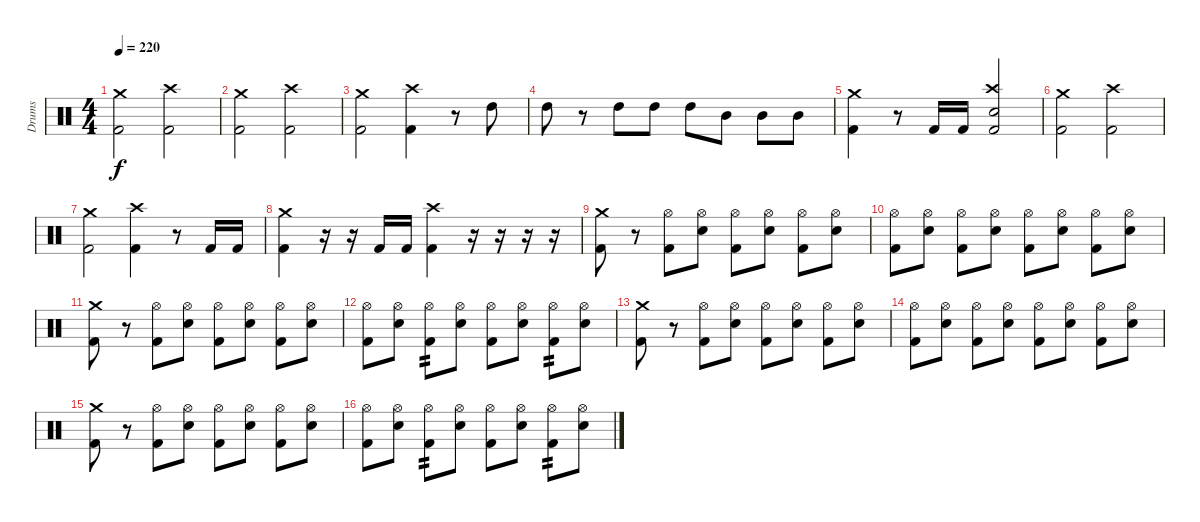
\track ("Drums" "Drums") {instrument percussion}
\staff {score}
\articulation defaults
\ts (4 4)
\tempo 220
\clef neutral
\ks c
("Crash medium (hit)" "Kick (hit) 2").2{dy f} ("Crash high (hit)" "Kick (hit) 2").2 |
("Crash medium (hit)" "Kick (hit) 2").2 ("Crash high (hit)" "Kick (hit) 2").2 |
("Crash medium (hit)" "Kick (hit) 2").2 ("Crash high (hit)" "Kick (hit) 2").4 r.8 "High Tom (hit)".8 |
"High Tom (hit)".8 r.8 "High Tom (hit)".8 "High Tom (hit)".8 "High Tom (hit)".8 "Mid Tom (hit)".8 "Mid Tom (hit)".8 "Mid Tom (hit)".8 |
("Crash medium (hit)" "Kick (hit) 2").4 r.8 "Kick (hit) 2".16 "Kick (hit) 2".16 ("Snare (hit) 2" "Crash high (hit)" "Kick (hit) 2").2 |
("Crash medium (hit)" "Kick (hit) 2").2 ("Crash high (hit)" "Kick (hit) 2").2 |
("Crash medium (hit)" "Kick (hit) 2").2 ("Crash high (hit)" "Kick (hit) 2").4 r.8 "Kick (hit) 2".16 "Kick (hit) 2".16 |
("Crash medium (hit)" "Kick (hit) 2").4 r.16 r.16 "Kick (hit) 2".16 "Kick (hit) 2".16 ("Crash high (hit)" "Kick (hit) 2").4 r.16 r.16 r.16 r.16 |
("Crash medium (hit)" "Kick (hit) 2").8 r.8 ("Hi-Hat (open)" "Kick (hit) 2").8 ("Hi-Hat (open)" "Snare (hit) 2").8 ("Hi-Hat (open)" "Kick (hit) 2").8 ("Hi-Hat (open)" "Snare (hit) 2").8 ("Hi-Hat (open)" "Kick (hit) 2").8 ("Hi-Hat (open)" "Snare (hit) 2").8 |
("Hi-Hat (open)" "Kick (hit) 2").8 ("Hi-Hat (open)" "Snare (hit) 2").8 ("Hi-Hat (open)" "Kick (hit) 2").8 ("Hi-Hat (open)" "Snare (hit) 2").8 ("Hi-Hat (open)" "Kick (hit) 2").8 ("Hi-Hat (open)" "Snare (hit) 2").8 ("Hi-Hat (open)" "Kick (hit) 2").8 ("Hi-Hat (open)" "Snare (hit) 2").8 |
("Crash medium (hit)" "Kick (hit) 2").8 r.8 ("Hi-Hat (open)" "Kick (hit) 2").8 ("Hi-Hat (open)" "Snare (hit) 2").8 ("Hi-Hat (open)" "Kick (hit) 2").8 ("Hi-Hat (open)" "Snare (hit) 2").8 ("Hi-Hat (open)" "Kick (hit) 2").8 ("Hi-Hat (open)" "Snare (hit) 2").8 |
("Hi-Hat (open)" "Kick (hit) 2").8 ("Hi-Hat (open)" "Snare (hit) 2").8 ("Hi-Hat (open)" "Kick (hit) 2").8{tp 2} ("Hi-Hat (open)" "Snare (hit) 2").8 ("Hi-Hat (open)" "Kick (hit) 2").8 ("Hi-Hat (open)" "Snare (hit) 2").8 ("Hi-Hat (open)" "Kick (hit) 2").8{tp 2} ("Hi-Hat (open)" "Snare (hit) 2").8 |
("Crash medium (hit)" "Kick (hit) 2").8 r.8 ("Hi-Hat (open)" "Kick (hit) 2").8 ("Hi-Hat (open)" "Snare (hit) 2").8 ("Hi-Hat (open)" "Kick (hit) 2").8 ("Hi-Hat (open)" "Snare (hit) 2").8 ("Hi-Hat (open)" "Kick (hit) 2").8 ("Hi-Hat (open)" "Snare (hit) 2").8 |
("Hi-Hat (open)" "Kick (hit) 2").8 ("Hi-Hat (open)" "Snare (hit) 2").8 ("Hi-Hat (open)" "Kick (hit) 2").8 ("Hi-Hat (open)" "Snare (hit) 2").8 ("Hi-Hat (open)" "Kick (hit) 2").8 ("Hi-Hat (open)" "Snare (hit) 2").8 ("Hi-Hat (open)" "Kick (hit) 2").8 ("Hi-Hat (open)" "Snare (hit) 2").8 |
("Crash medium (hit)" "Kick (hit) 2").8 r.8 ("Hi-Hat (open)" "Kick (hit) 2").8 ("Hi-Hat (open)" "Snare (hit) 2").8 ("Hi-Hat (open)" "Kick (hit) 2").8 ("Hi-Hat (open)" "Snare (hit) 2").8 ("Hi-Hat (open)" "Kick (hit) 2").8 ("Hi-Hat (open)" "Snare (hit) 2").8 |
("Hi-Hat (open)" "Kick (hit) 2").8 ("Hi-Hat (open)" "Snare (hit) 2").8 ("Hi-Hat (open)" "Kick (hit) 2").8{tp 2} ("Hi-Hat (open)" "Snare (hit) 2").8 ("Hi-Hat (open)" "Kick (hit) 2").8 ("Hi-Hat (open)" "Snare (hit) 2").8 ("Hi-Hat (open)" "Kick (hit) 2").8{tp 2} ("Hi-Hat (open)" "Snare (hit) 2").8
